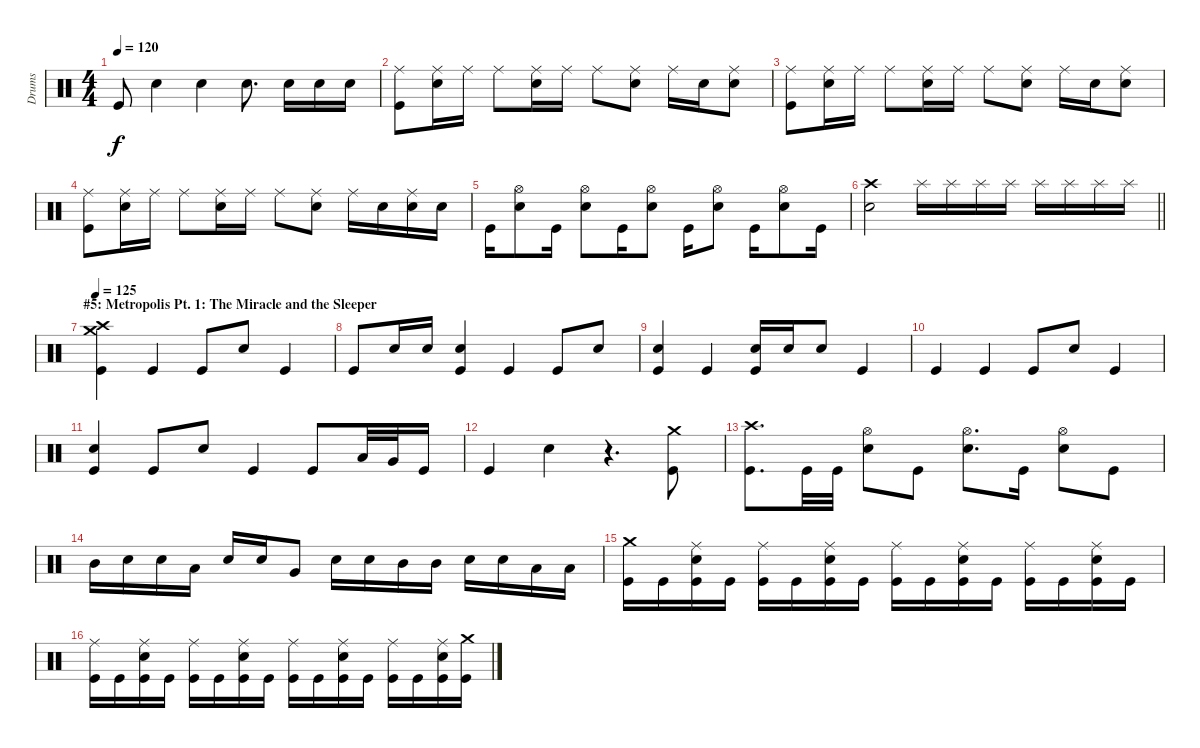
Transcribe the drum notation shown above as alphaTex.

\track ("Drums" "Drums") {instrument percussion}
\staff {score}
\articulation defaults
\ts (4 4)
\tempo 120
\clef neutral
\ks c "Kick (hit)".8{dy f} "Snare (hit) 2".4 "Snare (hit) 2".4 "Snare (hit) 2".8{d} "Snare (hit) 2".16 "Snare (hit) 2".16 "Snare (hit) 2".16
|
("Ride (middle)" "Kick (hit)").8 ("Ride (middle)" "Snare (hit) 2").16 "Ride (middle)".16 "Ride (middle)".8 ("Ride (middle)" "Snare (hit) 2").16 "Ride (middle)".16 "Ride (middle)".8 ("Ride (middle)" "Snare (hit) 2").8 "Ride (middle)".16 "Snare (hit) 2".16 ("Ride (middle)" "Snare (hit) 2").8 |
("Ride (middle)" "Kick (hit)").8 ("Ride (middle)" "Snare (hit) 2").16 "Ride (middle)".16 "Ride (middle)".8 ("Ride (middle)" "Snare (hit) 2").16 "Ride (middle)".16 "Ride (middle)".8 ("Ride (middle)" "Snare (hit) 2").8 "Ride (middle)".16 "Snare (hit) 2".16 ("Ride (middle)" "Snare (hit) 2").8 |
("Ride (middle)" "Kick (hit)").8 ("Ride (middle)" "Snare (hit) 2").16 "Ride (middle)".16 "Ride (middle)".8 ("Ride (middle)" "Snare (hit) 2").16 "Ride (middle)".16 "Ride (middle)".8 ("Ride (middle)" "Snare (hit) 2").8 "Ride (middle)".16 "Snare (hit) 2".16 ("Ride (middle)" "Snare (hit) 2").16 "Snare (hit) 2".16 |
"Kick (hit)".16 ("Hi-Hat (open)" "Snare (hit) 2").8 "Kick (hit)".16 ("Hi-Hat (open)" "Snare (hit) 2").8 "Kick (hit)".16 ("Hi-Hat (open)" "Snare (hit) 2").8 "Kick (hit)".16 ("Hi-Hat (open)" "Snare (hit) 2").8 "Kick (hit)".16 ("Hi-Hat (open)" "Snare (hit) 2").8 "Kick (hit)".16 |
\barLineRight lightlight
("Crash high (hit)" "Snare (hit) 2").2 "Splash (hit)".16 "Splash (hit)".16 "Splash (hit)".16 "Splash (hit)".16 "Splash (hit)".16 "Splash (hit)".16 "Splash (hit)".16 "Splash (hit)".16 |
\section ("" "#5: Metropolis Pt. 1: The Miracle and the Sleeper")
\tempo 125
("Crash high (hit)" "Crash medium (hit)" "Kick (hit)").4 "Kick (hit)".4 "Kick (hit)".8 "Snare (hit) 2".8 "Kick (hit)".4 |
"Kick (hit)".8 "Snare (hit) 2".16 "Snare (hit) 2".16 ("Snare (hit) 2" "Kick (hit)").4 "Kick (hit)".4 "Kick (hit)".8 "Snare (hit) 2".8 |
("Snare (hit) 2" "Kick (hit)").4 "Kick (hit)".4 ("Snare (hit) 2" "Kick (hit)").16 "Snare (hit) 2".16 "Snare (hit) 2".8 "Kick (hit)".4 |
"Kick (hit)".4 "Kick (hit)".4 "Kick (hit)".8 "Snare (hit) 2".8 "Kick (hit)".4 |
("Snare (hit) 2" "Kick (hit)").4 "Kick (hit)".8 "Snare (hit) 2".8 "Kick (hit)".4 "Kick (hit)".8 "Low Tom (hit)".32 "Very Low Tom (hit)".32 "Kick (hit)".16 |
"Kick (hit)".4 "Snare (hit) 2".4 r.4{d} ("Crash medium (hit)" "Kick (hit)").8 |
("Crash high (hit)" "Kick (hit)").8{d} "Kick (hit)".32 "Kick (hit)".32 ("Hi-Hat (open)" "Snare (hit) 2").8 "Kick (hit)".8 ("Hi-Hat (open)" "Snare (hit) 2").8{d} "Kick (hit)".16 ("Hi-Hat (open)" "Snare (hit) 2").8 "Kick (hit)".8 |
"Mid Tom (hit)".16 "Snare (hit) 2".16 "Snare (hit) 2".16 "Low Tom (hit)".16 "Snare (hit) 2".16 "Snare (hit) 2".16 "Very Low Tom (hit)".8 "Snare (hit) 2".16 "Snare (hit) 2".16 "Mid Tom (hit)".16 "Mid Tom (hit)".16 "Snare (hit) 2".16 "Snare (hit) 2".16 "Low Tom (hit)".16 "Low Tom (hit)".16 |
("Crash medium (hit)" "Kick (hit)").16 "Kick (hit)".16 ("Ride (middle)" "Snare (hit) 2" "Kick (hit)").16 "Kick (hit)".16 ("Ride (middle)" "Kick (hit)").16 "Kick (hit)".16 ("Ride (middle)" "Snare (hit) 2" "Kick (hit)").16 "Kick (hit)".16 ("Ride (middle)" "Kick (hit)").16 "Kick (hit)".16 ("Ride (middle)" "Snare (hit) 2" "Kick (hit)").16 "Kick (hit)".16 ("Ride (middle)" "Kick (hit)").16 "Kick (hit)".16 ("Ride (middle)" "Snare (hit) 2" "Kick (hit)").16 "Kick (hit)".16 |
("Ride (middle)" "Kick (hit)").16 "Kick (hit)".16 ("Ride (middle)" "Snare (hit) 2" "Kick (hit)").16 "Kick (hit)".16 ("Ride (middle)" "Kick (hit)").16 "Kick (hit)".16 ("Ride (middle)" "Snare (hit) 2" "Kick (hit)").16 "Kick (hit)".16 ("Ride (middle)" "Kick (hit)").16 "Kick (hit)".16 ("Ride (middle)" "Snare (hit) 2" "Kick (hit)").16 "Kick (hit)".16 ("Ride (middle)" "Kick (hit)").16 "Kick (hit)".16 ("Ride (middle)" "Snare (hit) 2" "Kick (hit)").16 ("Crash medium (hit)" "Kick (hit)").16
